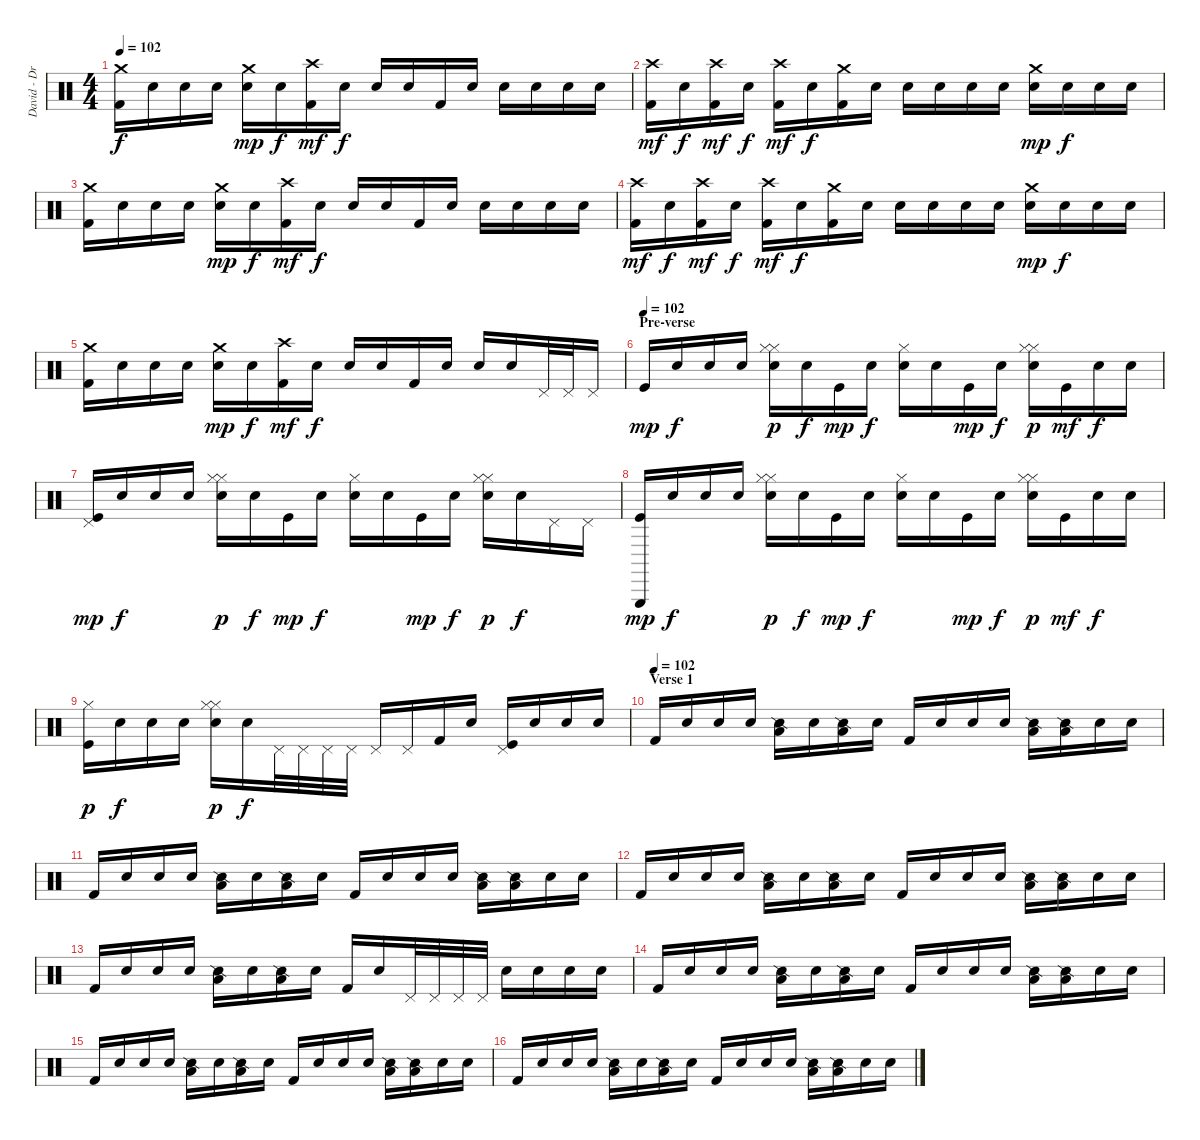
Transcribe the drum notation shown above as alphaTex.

\track ("David - Drums" "David - Dr") {instrument percussion}
\staff {score}
\articulation defaults
\ts (4 4)
\tempo 102
\clef neutral
\ks c
("Crash medium (hit)" "Kick (hit) 2").16{dy f} "Snare (hit)".16 "Snare (hit)".16 "Snare (hit)".16 ("Crash medium (hit)" "Electric Snare (hit)").16{dy mp} "Snare (hit)".16{dy f} ("Crash high (hit)" "Kick (hit) 2").16{dy mf} "Snare (hit)".16{dy f} "Snare (hit)".16 "Snare (hit)".16 "Kick (hit) 2".16 "Snare (hit)".16 "Electric Snare (hit)".16 "Snare (hit)".16 "Snare (hit)".16 "Snare (hit)".16 |
("Crash high (hit)" "Kick (hit) 2").16{dy mf} "Snare (hit)".16{dy f} ("Crash high (hit)" "Kick (hit) 2").16{dy mf} "Snare (hit)".16{dy f} ("Crash high (hit)" "Kick (hit) 2").16{dy mf} "Snare (hit)".16{dy f} ("Crash medium (hit)" "Kick (hit) 2").16 "Snare (hit)".16 "Snare (hit)".16 "Snare (hit)".16 "Snare (hit)".16 "Snare (hit)".16 ("Crash medium (hit)" "Electric Snare (hit)").16{dy mp} "Snare (hit)".16{dy f} "Snare (hit)".16 "Snare (hit)".16 |
("Crash medium (hit)" "Kick (hit) 2").16 "Snare (hit)".16 "Snare (hit)".16 "Snare (hit)".16 ("Crash medium (hit)" "Electric Snare (hit)").16{dy mp} "Snare (hit)".16{dy f} ("Crash high (hit)" "Kick (hit) 2").16{dy mf} "Snare (hit)".16{dy f} "Snare (hit)".16 "Snare (hit)".16 "Kick (hit) 2".16 "Snare (hit)".16 "Electric Snare (hit)".16 "Snare (hit)".16 "Snare (hit)".16 "Snare (hit)".16 |
("Crash high (hit)" "Kick (hit) 2").16{dy mf} "Snare (hit)".16{dy f} ("Crash high (hit)" "Kick (hit) 2").16{dy mf} "Snare (hit)".16{dy f} ("Crash high (hit)" "Kick (hit) 2").16{dy mf} "Snare (hit)".16{dy f} ("Crash medium (hit)" "Kick (hit) 2").16 "Snare (hit)".16 "Snare (hit)".16 "Snare (hit)".16 "Snare (hit)".16 "Snare (hit)".16 ("Crash medium (hit)" "Electric Snare (hit)").16{dy mp} "Snare (hit)".16{dy f} "Snare (hit)".16 "Snare (hit)".16 |
("Crash medium (hit)" "Kick (hit) 2").16 "Snare (hit)".16 "Snare (hit)".16 "Snare (hit)".16 ("Crash medium (hit)" "Electric Snare (hit)").16{dy mp} "Snare (hit)".16{dy f} ("Crash high (hit)" "Kick (hit) 2").16{dy mf} "Snare (hit)".16{dy f} "Snare (hit)".16 "Snare (hit)".16 "Kick (hit) 2".16 "Snare (hit)".16 "Electric Snare (hit)".16 "Snare (hit)".16 "Pedal Hi-Hat (hit)".32 "Pedal Hi-Hat (hit)".32 "Pedal Hi-Hat (hit)".16 |
\section ("" "Pre-verse")
\tempo (102)
"Kick (hit)".16{dy mp volume 16 balance 8} "Snare (hit)".16{dy f} "Snare (hit)".16 "Snare (hit)".16 ("Hi-Hat (closed)" "Electric Snare (hit)" "Hi-Hat (closed)").16{dy p} "Snare (hit)".16{dy f} "Kick (hit)".16{dy mp} "Snare (hit)".16{dy f} ("Hi-Hat (closed)" "Snare (hit)").16 "Snare (hit)".16 "Kick (hit)".16{dy mp} "Snare (hit)".16{dy f} ("Hi-Hat (closed)" "Electric Snare (hit)" "Hi-Hat (closed)").16{dy p} "Kick (hit)".16{dy mf} "Snare (hit)".16{dy f} "Snare (hit)".16 |
("Pedal Hi-Hat (hit)" "Kick (hit)").16{dy mp} "Snare (hit)".16{dy f} "Snare (hit)".16 "Snare (hit)".16 ("Hi-Hat (closed)" "Electric Snare (hit)" "Hi-Hat (closed)").16{dy p} "Snare (hit)".16{dy f} "Kick (hit)".16{dy mp} "Snare (hit)".16{dy f} ("Hi-Hat (closed)" "Snare (hit)").16 "Snare (hit)".16 "Kick (hit)".16{dy mp} "Snare (hit)".16{dy f} ("Hi-Hat (closed)" "Electric Snare (hit)" "Hi-Hat (closed)").16{dy p} "Snare (hit)".16{dy f} "Pedal Hi-Hat (hit)".16 "Pedal Hi-Hat (hit)".16 |
("Triangle (hit)" "Kick (hit)").16{dy mp} "Snare (hit)".16{dy f} "Snare (hit)".16 "Snare (hit)".16 ("Hi-Hat (closed)" "Electric Snare (hit)" "Hi-Hat (closed)").16{dy p} "Snare (hit)".16{dy f} "Kick (hit)".16{dy mp} "Snare (hit)".16{dy f} ("Hi-Hat (closed)" "Snare (hit)").16 "Snare (hit)".16 "Kick (hit)".16{dy mp} "Snare (hit)".16{dy f} ("Hi-Hat (closed)" "Electric Snare (hit)" "Hi-Hat (closed)").16{dy p} "Kick (hit)".16{dy mf} "Snare (hit)".16{dy f} "Snare (hit)".16 |
("Hi-Hat (closed)" "Kick (hit)").16{dy p} "Snare (hit)".16{dy f} "Snare (hit)".16 "Snare (hit)".16 ("Hi-Hat (closed)" "Electric Snare (hit)" "Hi-Hat (closed)").16{dy p} "Snare (hit)".16{dy f} "Pedal Hi-Hat (hit)".32 "Pedal Hi-Hat (hit)".32 "Pedal Hi-Hat (hit)".32 "Pedal Hi-Hat (hit)".32 "Pedal Hi-Hat (hit)".16 "Pedal Hi-Hat (hit)".16 "Kick (hit) 2".16 "Snare (hit)".16 ("Pedal Hi-Hat (hit)" "Kick (hit)").16 "Snare (hit)".16 "Snare (hit)".16 "Snare (hit)".16 |
\section ("" "Verse 1")
\tempo (102)
"Kick (hit) 2".16{volume 16 balance 8} "Snare (hit)".16 "Snare (hit)".16 "Snare (hit)".16 ("Low Floor Tom (hit)" "Snare (side stick) 2").16 "Snare (hit)".16 ("Low Floor Tom (hit)" "Snare (side stick) 2").16 "Snare (hit)".16 "Kick (hit) 2".16 "Snare (hit)".16 "Snare (hit)".16 "Snare (hit)".16 ("Low Floor Tom (hit)" "Snare (side stick) 2").16 ("Low Floor Tom (hit)" "Snare (side stick) 2").16 "Snare (hit)".16 "Snare (hit)".16 |
"Kick (hit) 2".16 "Snare (hit)".16 "Snare (hit)".16 "Snare (hit)".16 ("Low Floor Tom (hit)" "Snare (side stick) 2").16 "Snare (hit)".16 ("Low Floor Tom (hit)" "Snare (side stick) 2").16 "Snare (hit)".16 "Kick (hit) 2".16 "Snare (hit)".16 "Snare (hit)".16 "Snare (hit)".16 ("Low Floor Tom (hit)" "Snare (side stick) 2").16 ("Low Floor Tom (hit)" "Snare (side stick) 2").16 "Snare (hit)".16 "Snare (hit)".16 |
"Kick (hit) 2".16 "Snare (hit)".16 "Snare (hit)".16 "Snare (hit)".16 ("Low Floor Tom (hit)" "Snare (side stick) 2").16 "Snare (hit)".16 ("Low Floor Tom (hit)" "Snare (side stick) 2").16 "Snare (hit)".16 "Kick (hit) 2".16 "Snare (hit)".16 "Snare (hit)".16 "Snare (hit)".16 ("Low Floor Tom (hit)" "Snare (side stick) 2").16 ("Low Floor Tom (hit)" "Snare (side stick) 2").16 "Snare (hit)".16 "Snare (hit)".16 |
"Kick (hit) 2".16 "Snare (hit)".16 "Snare (hit)".16 "Snare (hit)".16 ("Low Floor Tom (hit)" "Snare (side stick) 2").16 "Snare (hit)".16 ("Low Floor Tom (hit)" "Snare (side stick) 2").16 "Snare (hit)".16 "Kick (hit) 2".16 "Snare (hit)".16 "Pedal Hi-Hat (hit)".32 "Pedal Hi-Hat (hit)".32 "Pedal Hi-Hat (hit)".32 "Pedal Hi-Hat (hit)".32 "Snare (hit)".16 "Snare (hit)".16 "Snare (hit)".16 "Snare (hit)".16 |
"Kick (hit) 2".16 "Snare (hit)".16 "Snare (hit)".16 "Snare (hit)".16 ("Low Floor Tom (hit)" "Snare (side stick) 2").16 "Snare (hit)".16 ("Low Floor Tom (hit)" "Snare (side stick) 2").16 "Snare (hit)".16 "Kick (hit) 2".16 "Snare (hit)".16 "Snare (hit)".16 "Snare (hit)".16 ("Low Floor Tom (hit)" "Snare (side stick) 2").16 ("Low Floor Tom (hit)" "Snare (side stick) 2").16 "Snare (hit)".16 "Snare (hit)".16 |
"Kick (hit) 2".16 "Snare (hit)".16 "Snare (hit)".16 "Snare (hit)".16 ("Low Floor Tom (hit)" "Snare (side stick) 2").16 "Snare (hit)".16 ("Low Floor Tom (hit)" "Snare (side stick) 2").16 "Snare (hit)".16 "Kick (hit) 2".16 "Snare (hit)".16 "Snare (hit)".16 "Snare (hit)".16 ("Low Floor Tom (hit)" "Snare (side stick) 2").16 ("Low Floor Tom (hit)" "Snare (side stick) 2").16 "Snare (hit)".16 "Snare (hit)".16 |
"Kick (hit) 2".16 "Snare (hit)".16 "Snare (hit)".16 "Snare (hit)".16 ("Low Floor Tom (hit)" "Snare (side stick) 2").16 "Snare (hit)".16 ("Low Floor Tom (hit)" "Snare (side stick) 2").16 "Snare (hit)".16 "Kick (hit) 2".16 "Snare (hit)".16 "Snare (hit)".16 "Snare (hit)".16 ("Low Floor Tom (hit)" "Snare (side stick) 2").16 ("Low Floor Tom (hit)" "Snare (side stick) 2").16 "Snare (hit)".16 "Snare (hit)".16
